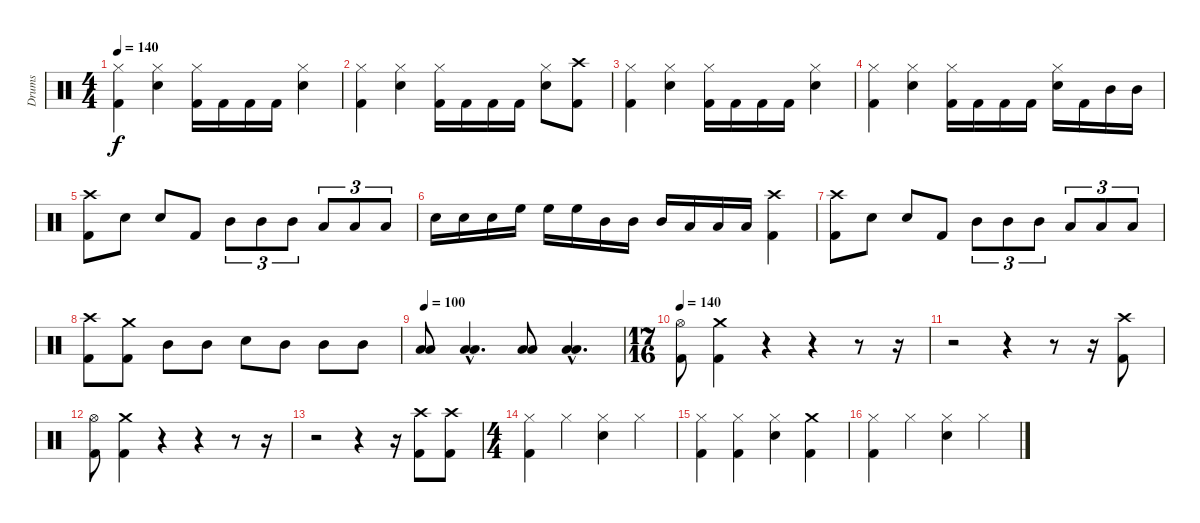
\track ("Drums" "Drums") {instrument percussion}
\staff {score}
\articulation defaults
\ts (4 4)
\tempo 140
\clef neutral
\ks c
("Hi-Hat (closed)" "Kick (hit) 2").4{dy f} ("Hi-Hat (closed)" "Snare (hit) 2").4 ("Hi-Hat (closed)" "Kick (hit) 2").16 "Kick (hit) 2".16 "Kick (hit) 2".16 "Kick (hit) 2".16 ("Hi-Hat (closed)" "Snare (hit) 2").4 |
("Hi-Hat (closed)" "Kick (hit) 2").4 ("Hi-Hat (closed)" "Snare (hit) 2").4 ("Hi-Hat (closed)" "Kick (hit) 2").16 "Kick (hit) 2".16 "Kick (hit) 2".16 "Kick (hit) 2".16 ("Hi-Hat (closed)" "Snare (hit) 2").8 ("Crash high (hit)" "Kick (hit) 2").8 |
("Hi-Hat (closed)" "Kick (hit) 2").4 ("Hi-Hat (closed)" "Snare (hit) 2").4 ("Hi-Hat (closed)" "Kick (hit) 2").16 "Kick (hit) 2".16 "Kick (hit) 2".16 "Kick (hit) 2".16 ("Hi-Hat (closed)" "Snare (hit) 2").4 |
("Hi-Hat (closed)" "Kick (hit) 2").4 ("Hi-Hat (closed)" "Snare (hit) 2").4 ("Hi-Hat (closed)" "Kick (hit) 2").16 "Kick (hit) 2".16 "Kick (hit) 2".16 "Kick (hit) 2".16 ("Hi-Hat (closed)" "Snare (hit) 2").16 "Kick (hit) 2".16 "Mid Tom (hit)".16 "Mid Tom (hit)".16 |
("Crash high (hit)" "Kick (hit) 2").8 "Snare (hit) 2".8 "Snare (hit) 2".8 "Kick (hit) 2".8 "Mid Tom (hit)".8{tu (3 2)} "Mid Tom (hit)".8{tu (3 2)} "Mid Tom (hit)".8{tu (3 2)} "Low Tom (hit)".8{tu (3 2)} "Low Tom (hit)".8{tu (3 2)} "Low Tom (hit)".8{tu (3 2)} |
"Snare (hit) 2".16 "Snare (hit) 2".16 "Snare (hit) 2".16 "High Floor Tom (hit)".16 "High Floor Tom (hit)".16 "High Floor Tom (hit)".16 "Mid Tom (hit)".16 "Mid Tom (hit)".16 "Mid Tom (hit)".16 "Low Tom (hit)".16 "Low Tom (hit)".16 "Low Tom (hit)".16 ("Crash high (hit)" "Kick (hit) 2").4 |
("Crash high (hit)" "Kick (hit) 2").8 "Snare (hit) 2".8 "Snare (hit) 2".8 "Kick (hit) 2".8 "Mid Tom (hit)".8{tu (3 2)} "Mid Tom (hit)".8{tu (3 2)} "Mid Tom (hit)".8{tu (3 2)} "Low Tom (hit)".8{tu (3 2)} "Low Tom (hit)".8{tu (3 2)} "Low Tom (hit)".8{tu (3 2)} |
("Kick (hit) 2" "Crash high (hit)").8 ("Crash medium (hit)" "Kick (hit) 2").8 "Mid Tom (hit)".8 "Mid Tom (hit)".8 "Snare (hit) 2".8 "Mid Tom (hit)".8 "Mid Tom (hit)".8 "Mid Tom (hit)".8 |
\tempo 100
("Low Tom (hit)" "Low Floor Tom (hit)").8 ("Low Tom (hit)"{hac} "Low Floor Tom (hit)"{hac}).4{d} ("Low Floor Tom (hit)" "Low Tom (hit)").8 ("Low Floor Tom (hit)"{hac} "Low Tom (hit)"{hac}).4{d} |
\ts (17 16)
\tempo 120
\tempo 140
("Hi-Hat (open)" "Kick (hit) 2").8 ("Kick (hit) 2" "Crash medium (hit)").4 r.4 r.4 r.8 r.16 |
r.2 r.4 r.8 r.16 ("Crash high (hit)" "Kick (hit) 2").8 |
("Hi-Hat (open)" "Kick (hit) 2").8 ("Kick (hit) 2" "Crash medium (hit)").4 r.4 r.4 r.8 r.16 |
r.2 r.4 r.16 ("Crash high (hit)" "Kick (hit) 2").8 ("Crash high (hit)" "Kick (hit) 2").8 |
\ts (4 4)
("Kick (hit) 2" "Hi-Hat (closed)").4 "Hi-Hat (closed)".4 ("Hi-Hat (closed)" "Snare (hit) 2").4 "Hi-Hat (closed)".4 |
("Hi-Hat (closed)" "Kick (hit) 2").4 ("Hi-Hat (closed)" "Kick (hit) 2").4 ("Hi-Hat (closed)" "Snare (hit) 2").4 ("Crash medium (hit)" "Kick (hit) 2").4 |
("Kick (hit) 2" "Hi-Hat (closed)").4 "Hi-Hat (closed)".4 ("Hi-Hat (closed)" "Snare (hit) 2").4 "Hi-Hat (closed)".4
